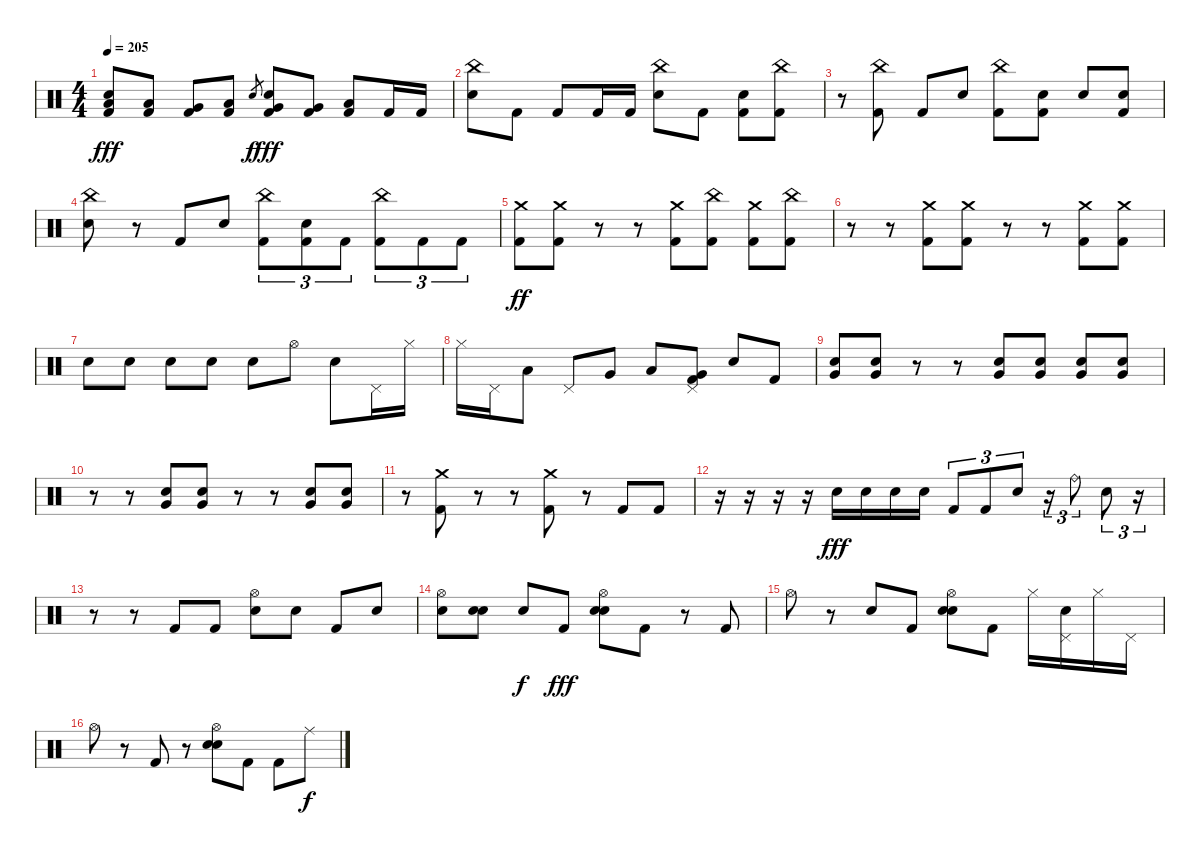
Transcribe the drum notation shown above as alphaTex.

\track "" {instrument percussion}
\staff {score}
\articulation defaults
\ts (4 4)
\tempo 205
\clef neutral
\ks c
("Low Tom (hit)" "Electric Snare (hit)" "Kick (hit) 2").8{dy fff} ("Low Tom (hit)" "Kick (hit) 2").8 ("Very Low Tom (hit)" "Kick (hit) 2").8 ("Low Tom (hit)" "Kick (hit) 2").8 "Electric Snare (hit)".8{gr dy f} ("Electric Snare (hit)" "Very Low Tom (hit)" "Kick (hit) 2").8{dy fff} ("Very Low Tom (hit)" "Kick (hit) 2").8 ("Low Tom (hit)" "Kick (hit) 2").8 "Kick (hit) 2".16 "Kick (hit) 2".16 |
("China (hit)" "Electric Snare (hit)").8 "Kick (hit) 2".8 "Kick (hit) 2".8 "Kick (hit) 2".16 "Kick (hit) 2".16 ("Electric Snare (hit)" "China (hit)").8 "Kick (hit) 2".8 ("Electric Snare (hit)" "Kick (hit) 2").8 ("China (hit)" "Kick (hit) 2").8 |
r.8 ("China (hit)" "Kick (hit) 2").8 "Kick (hit) 2".8 "Snare (hit)".8 ("China (hit)" "Kick (hit) 2").8 ("Snare (hit)" "Kick (hit) 2").8 "Snare (hit)".8 ("Snare (hit)" "Kick (hit) 2").8 |
\section ("" "")
("Electric Snare (hit)" "China (hit)").8 r.8 "Kick (hit) 2".8 "Snare (hit)".8 ("China (hit)" "Kick (hit) 2").8{tu (3 2)} ("Snare (hit)" "Kick (hit) 2").8{tu (3 2)} "Kick (hit) 2".8{tu (3 2)} ("China (hit)" "Kick (hit) 2").8{tu (3 2)} "Kick (hit) 2".8{tu (3 2)} "Kick (hit) 2".8{tu (3 2)} |
("Crash medium (hit)" "Kick (hit) 2").8{dy ff} ("Crash medium (hit)" "Kick (hit) 2").8 r.8 r.8 ("Crash medium (hit)" "Kick (hit) 2").8 ("China (hit)" "Kick (hit) 2").8 ("Crash medium (hit)" "Kick (hit) 2").8 ("China (hit)" "Kick (hit) 2").8 |
r.8 r.8 ("Crash medium (hit)" "Kick (hit) 2").8 ("Crash medium (hit)" "Kick (hit) 2").8 r.8 r.8 ("Crash medium (hit)" "Kick (hit) 2").8 ("Crash medium (hit)" "Kick (hit) 2").8 |
"Snare (hit)".8 "Snare (hit)".8 "Snare (hit)".8 "Snare (hit)".8 "Snare (hit)".8 "Hi-Hat (open)".8 "Snare (hit)".8 "Pedal Hi-Hat (hit)".16 "Hi-Hat (closed)".16 |
"Hi-Hat (closed)".16 "Pedal Hi-Hat (hit)".16 "Low Tom (hit)".8 "Pedal Hi-Hat (hit)".8 "Very Low Tom (hit)".8 "Low Tom (hit)".8 ("Pedal Hi-Hat (hit)" "Very Low Tom (hit)" "Kick (hit) 2").8 "Electric Snare (hit)".8 "Kick (hit) 2".8 |
("Electric Snare (hit)" "Very Low Tom (hit)").8 ("Electric Snare (hit)" "Very Low Tom (hit)").8 r.8 r.8 ("Electric Snare (hit)" "Very Low Tom (hit)").8 ("Electric Snare (hit)" "Very Low Tom (hit)").8 ("Electric Snare (hit)" "Very Low Tom (hit)").8 ("Electric Snare (hit)" "Very Low Tom (hit)").8 |
r.8 r.8 ("Electric Snare (hit)" "Very Low Tom (hit)").8 ("Electric Snare (hit)" "Very Low Tom (hit)").8 r.8 r.8 ("Electric Snare (hit)" "Very Low Tom (hit)").8 ("Electric Snare (hit)" "Very Low Tom (hit)").8 |
r.8 ("Crash medium (hit)" "Kick (hit) 2").8 r.8 r.8 ("Crash medium (hit)" "Kick (hit) 2").8 r.8 "Kick (hit) 2".8 "Kick (hit) 2".8 |
r.16 r.16 r.16 r.16 "Electric Snare (hit)".16{dy fff} "Electric Snare (hit)".16 "Electric Snare (hit)".16 "Electric Snare (hit)".16 "Kick (hit) 2".8{tu (3 2)} "Kick (hit) 2".8{tu (3 2)} "Electric Snare (hit)".8{tu (3 2)} r.16{tu (3 2)} "Ride (bell)".8{tu (3 2)} "Snare (hit)".8{tu (3 2)} r.16{tu (3 2)} |
r.8 r.8 "Kick (hit) 2".8 "Kick (hit) 2".8 ("Hi-Hat (open)" "Electric Snare (hit)").8 "Snare (hit)".8 "Kick (hit) 2".8 "Snare (hit)".8 |
("Hi-Hat (open)" "Snare (hit)").8 ("Electric Snare (hit)" "Snare (hit)").8 "Electric Snare (hit)".8{dy f} "Kick (hit) 2".8{dy fff} ("Electric Snare (hit)" "Hi-Hat (open)" "Snare (hit)").8 "Kick (hit) 2".8 r.8 "Kick (hit) 2".8 |
"Hi-Hat (open)".8 r.8 "Snare (hit)".8 "Kick (hit) 2".8 ("Electric Snare (hit)" "Hi-Hat (open)" "Snare (hit)").8 "Kick (hit) 2".8 "Hi-Hat (closed)".16 ("Pedal Hi-Hat (hit)" "Snare (hit)").16 "Hi-Hat (closed)".16 "Pedal Hi-Hat (hit)".16 |
"Hi-Hat (open)".8 r.8 "Kick (hit) 2".8 r.8 ("Electric Snare (hit)" "Hi-Hat (open)" "Snare (hit)").8 "Kick (hit) 2".8 "Kick (hit) 2".8 "Ride (middle)".8{dy f}
